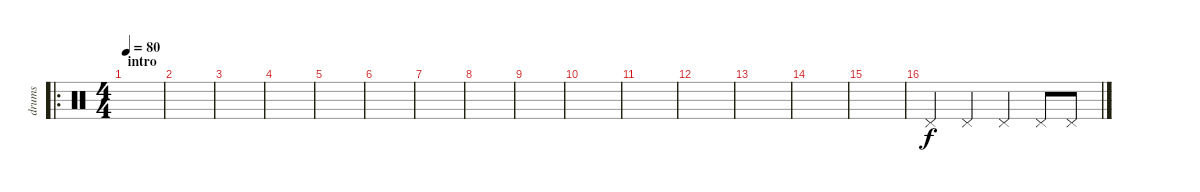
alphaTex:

\track ("drums" "drums") {instrument percussion}
\staff {score}
\articulation defaults
\ro
\ts (4 4)
\section ("" "intro")
\tempo 80
\clef neutral
\ks c
|
|
|
|
|
|
|
|
|
|
|
|
|
|
|
"Pedal Hi-Hat (hit)".4 "Pedal Hi-Hat (hit)".4 "Pedal Hi-Hat (hit)".4 "Pedal Hi-Hat (hit)".8 "Pedal Hi-Hat (hit)".8
